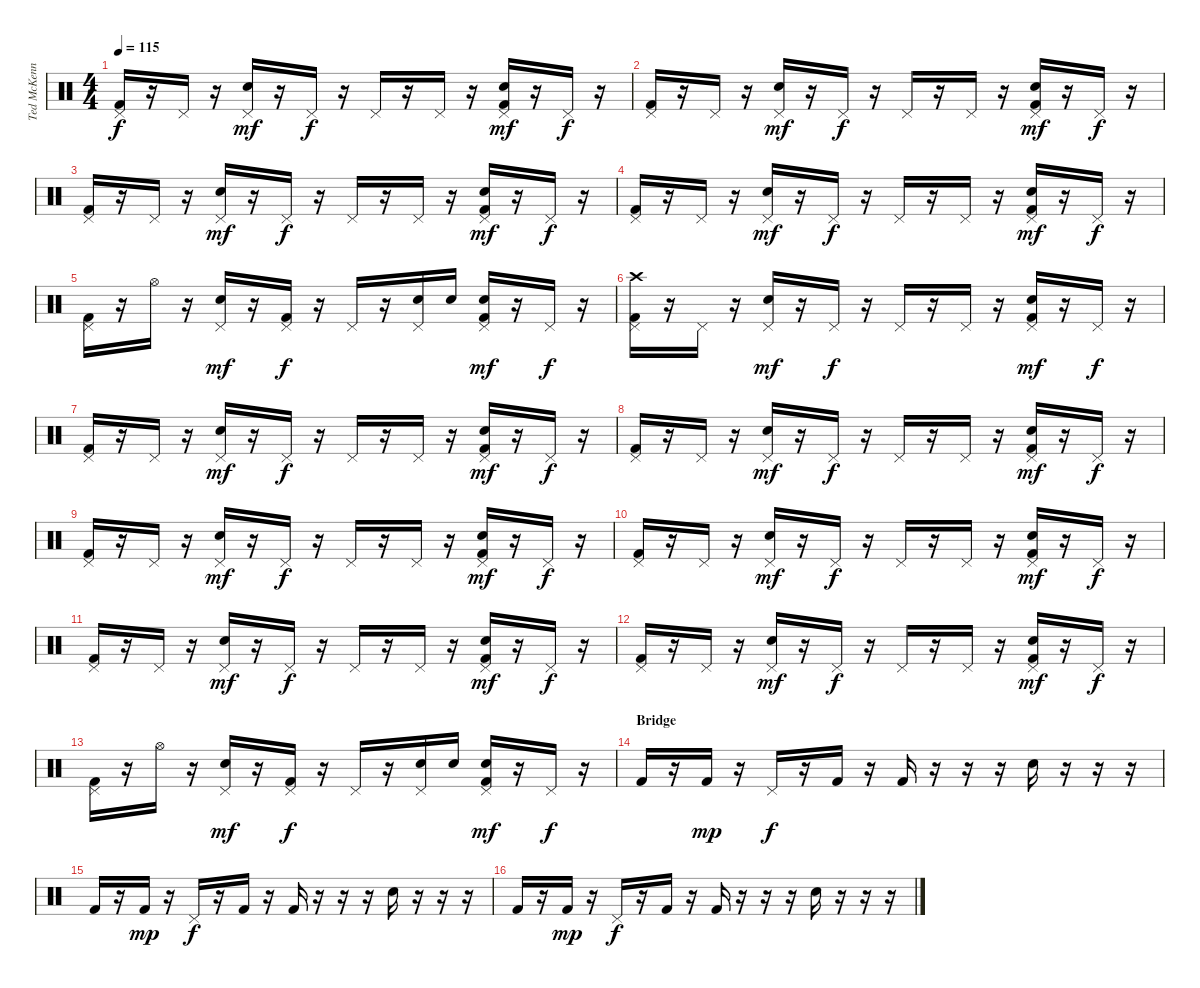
\track ("Ted McKenna" "Ted McKenn") {instrument percussion}
\staff {score}
\articulation defaults
\ts (4 4)
\tempo 115
\clef neutral
\ks c
("Pedal Hi-Hat (hit)" "Kick (hit) 2").16{dy f} r.16 "Pedal Hi-Hat (hit)".16 r.16 ("Electric Snare (hit)" "Pedal Hi-Hat (hit)").16{dy mf} r.16 "Pedal Hi-Hat (hit)".16{dy f} r.16 "Pedal Hi-Hat (hit)".16 r.16 "Pedal Hi-Hat (hit)".16 r.16 ("Electric Snare (hit)" "Pedal Hi-Hat (hit)" "Kick (hit) 2").16{dy mf} r.16 "Pedal Hi-Hat (hit)".16{dy f} r.16 |
("Pedal Hi-Hat (hit)" "Kick (hit) 2").16 r.16 "Pedal Hi-Hat (hit)".16 r.16 ("Electric Snare (hit)" "Pedal Hi-Hat (hit)").16{dy mf} r.16 "Pedal Hi-Hat (hit)".16{dy f} r.16 "Pedal Hi-Hat (hit)".16 r.16 "Pedal Hi-Hat (hit)".16 r.16 ("Electric Snare (hit)" "Pedal Hi-Hat (hit)" "Kick (hit) 2").16{dy mf} r.16 "Pedal Hi-Hat (hit)".16{dy f} r.16 |
("Pedal Hi-Hat (hit)" "Kick (hit) 2").16 r.16 "Pedal Hi-Hat (hit)".16 r.16 ("Electric Snare (hit)" "Pedal Hi-Hat (hit)").16{dy mf} r.16 "Pedal Hi-Hat (hit)".16{dy f} r.16 "Pedal Hi-Hat (hit)".16 r.16 "Pedal Hi-Hat (hit)".16 r.16 ("Electric Snare (hit)" "Pedal Hi-Hat (hit)" "Kick (hit) 2").16{dy mf} r.16 "Pedal Hi-Hat (hit)".16{dy f} r.16 |
("Pedal Hi-Hat (hit)" "Kick (hit) 2").16 r.16 "Pedal Hi-Hat (hit)".16 r.16 ("Electric Snare (hit)" "Pedal Hi-Hat (hit)").16{dy mf} r.16 "Pedal Hi-Hat (hit)".16{dy f} r.16 "Pedal Hi-Hat (hit)".16 r.16 "Pedal Hi-Hat (hit)".16 r.16 ("Electric Snare (hit)" "Pedal Hi-Hat (hit)" "Kick (hit) 2").16{dy mf} r.16 "Pedal Hi-Hat (hit)".16{dy f} r.16 |
("Pedal Hi-Hat (hit)" "Kick (hit) 2").16 r.16 "Hi-Hat (open)".16 r.16 ("Electric Snare (hit)" "Pedal Hi-Hat (hit)").16{dy mf} r.16 ("Pedal Hi-Hat (hit)" "Kick (hit) 2").16{dy f} r.16 "Pedal Hi-Hat (hit)".16 r.16 ("Electric Snare (hit)" "Pedal Hi-Hat (hit)").16 "Electric Snare (hit)".16 ("Electric Snare (hit)" "Pedal Hi-Hat (hit)" "Kick (hit) 2").16{dy mf} r.16 "Pedal Hi-Hat (hit)".16{dy f} r.16 |
("Crash high (hit)" "Pedal Hi-Hat (hit)" "Kick (hit) 2").16 r.16 "Pedal Hi-Hat (hit)".16 r.16 ("Electric Snare (hit)" "Pedal Hi-Hat (hit)").16{dy mf} r.16 "Pedal Hi-Hat (hit)".16{dy f} r.16 "Pedal Hi-Hat (hit)".16 r.16 "Pedal Hi-Hat (hit)".16 r.16 ("Electric Snare (hit)" "Pedal Hi-Hat (hit)" "Kick (hit) 2").16{dy mf} r.16 "Pedal Hi-Hat (hit)".16{dy f} r.16 |
("Pedal Hi-Hat (hit)" "Kick (hit) 2").16 r.16 "Pedal Hi-Hat (hit)".16 r.16 ("Electric Snare (hit)" "Pedal Hi-Hat (hit)").16{dy mf} r.16 "Pedal Hi-Hat (hit)".16{dy f} r.16 "Pedal Hi-Hat (hit)".16 r.16 "Pedal Hi-Hat (hit)".16 r.16 ("Electric Snare (hit)" "Pedal Hi-Hat (hit)" "Kick (hit) 2").16{dy mf} r.16 "Pedal Hi-Hat (hit)".16{dy f} r.16 |
("Pedal Hi-Hat (hit)" "Kick (hit) 2").16 r.16 "Pedal Hi-Hat (hit)".16 r.16 ("Electric Snare (hit)" "Pedal Hi-Hat (hit)").16{dy mf} r.16 "Pedal Hi-Hat (hit)".16{dy f} r.16 "Pedal Hi-Hat (hit)".16 r.16 "Pedal Hi-Hat (hit)".16 r.16 ("Electric Snare (hit)" "Pedal Hi-Hat (hit)" "Kick (hit) 2").16{dy mf} r.16 "Pedal Hi-Hat (hit)".16{dy f} r.16 |
("Pedal Hi-Hat (hit)" "Kick (hit) 2").16 r.16 "Pedal Hi-Hat (hit)".16 r.16 ("Electric Snare (hit)" "Pedal Hi-Hat (hit)").16{dy mf} r.16 "Pedal Hi-Hat (hit)".16{dy f} r.16 "Pedal Hi-Hat (hit)".16 r.16 "Pedal Hi-Hat (hit)".16 r.16 ("Electric Snare (hit)" "Pedal Hi-Hat (hit)" "Kick (hit) 2").16{dy mf} r.16 "Pedal Hi-Hat (hit)".16{dy f} r.16 |
("Pedal Hi-Hat (hit)" "Kick (hit) 2").16 r.16 "Pedal Hi-Hat (hit)".16 r.16 ("Electric Snare (hit)" "Pedal Hi-Hat (hit)").16{dy mf} r.16 "Pedal Hi-Hat (hit)".16{dy f} r.16 "Pedal Hi-Hat (hit)".16 r.16 "Pedal Hi-Hat (hit)".16 r.16 ("Electric Snare (hit)" "Pedal Hi-Hat (hit)" "Kick (hit) 2").16{dy mf} r.16 "Pedal Hi-Hat (hit)".16{dy f} r.16 |
("Pedal Hi-Hat (hit)" "Kick (hit) 2").16 r.16 "Pedal Hi-Hat (hit)".16 r.16 ("Electric Snare (hit)" "Pedal Hi-Hat (hit)").16{dy mf} r.16 "Pedal Hi-Hat (hit)".16{dy f} r.16 "Pedal Hi-Hat (hit)".16 r.16 "Pedal Hi-Hat (hit)".16 r.16 ("Electric Snare (hit)" "Pedal Hi-Hat (hit)" "Kick (hit) 2").16{dy mf} r.16 "Pedal Hi-Hat (hit)".16{dy f} r.16 |
("Pedal Hi-Hat (hit)" "Kick (hit) 2").16 r.16 "Pedal Hi-Hat (hit)".16 r.16 ("Electric Snare (hit)" "Pedal Hi-Hat (hit)").16{dy mf} r.16 "Pedal Hi-Hat (hit)".16{dy f} r.16 "Pedal Hi-Hat (hit)".16 r.16 "Pedal Hi-Hat (hit)".16 r.16 ("Electric Snare (hit)" "Pedal Hi-Hat (hit)" "Kick (hit) 2").16{dy mf} r.16 "Pedal Hi-Hat (hit)".16{dy f} r.16 |
("Pedal Hi-Hat (hit)" "Kick (hit) 2").16 r.16 "Hi-Hat (open)".16 r.16 ("Electric Snare (hit)" "Pedal Hi-Hat (hit)").16{dy mf} r.16 ("Pedal Hi-Hat (hit)" "Kick (hit) 2").16{dy f} r.16 "Pedal Hi-Hat (hit)".16 r.16 ("Electric Snare (hit)" "Pedal Hi-Hat (hit)").16 "Electric Snare (hit)".16 ("Electric Snare (hit)" "Pedal Hi-Hat (hit)" "Kick (hit) 2").16{dy mf} r.16 "Pedal Hi-Hat (hit)".16{dy f} r.16 |
\section ("" "Bridge")
"Kick (hit) 2".16 r.16 "Kick (hit) 2".16{dy mp} r.16 "Pedal Hi-Hat (hit)".16{dy f} r.16 "Kick (hit) 2".16 r.16 "Kick (hit) 2".16 r.16 r.16 r.16 "Snare (hit) 2".16 r.16 r.16 r.16 |
"Kick (hit) 2".16 r.16 "Kick (hit) 2".16{dy mp} r.16 "Pedal Hi-Hat (hit)".16{dy f} r.16 "Kick (hit) 2".16 r.16 "Kick (hit) 2".16 r.16 r.16 r.16 "Snare (hit) 2".16 r.16 r.16 r.16 |
"Kick (hit) 2".16 r.16 "Kick (hit) 2".16{dy mp} r.16 "Pedal Hi-Hat (hit)".16{dy f} r.16 "Kick (hit) 2".16 r.16 "Kick (hit) 2".16 r.16 r.16 r.16 "Snare (hit) 2".16 r.16 r.16 r.16
